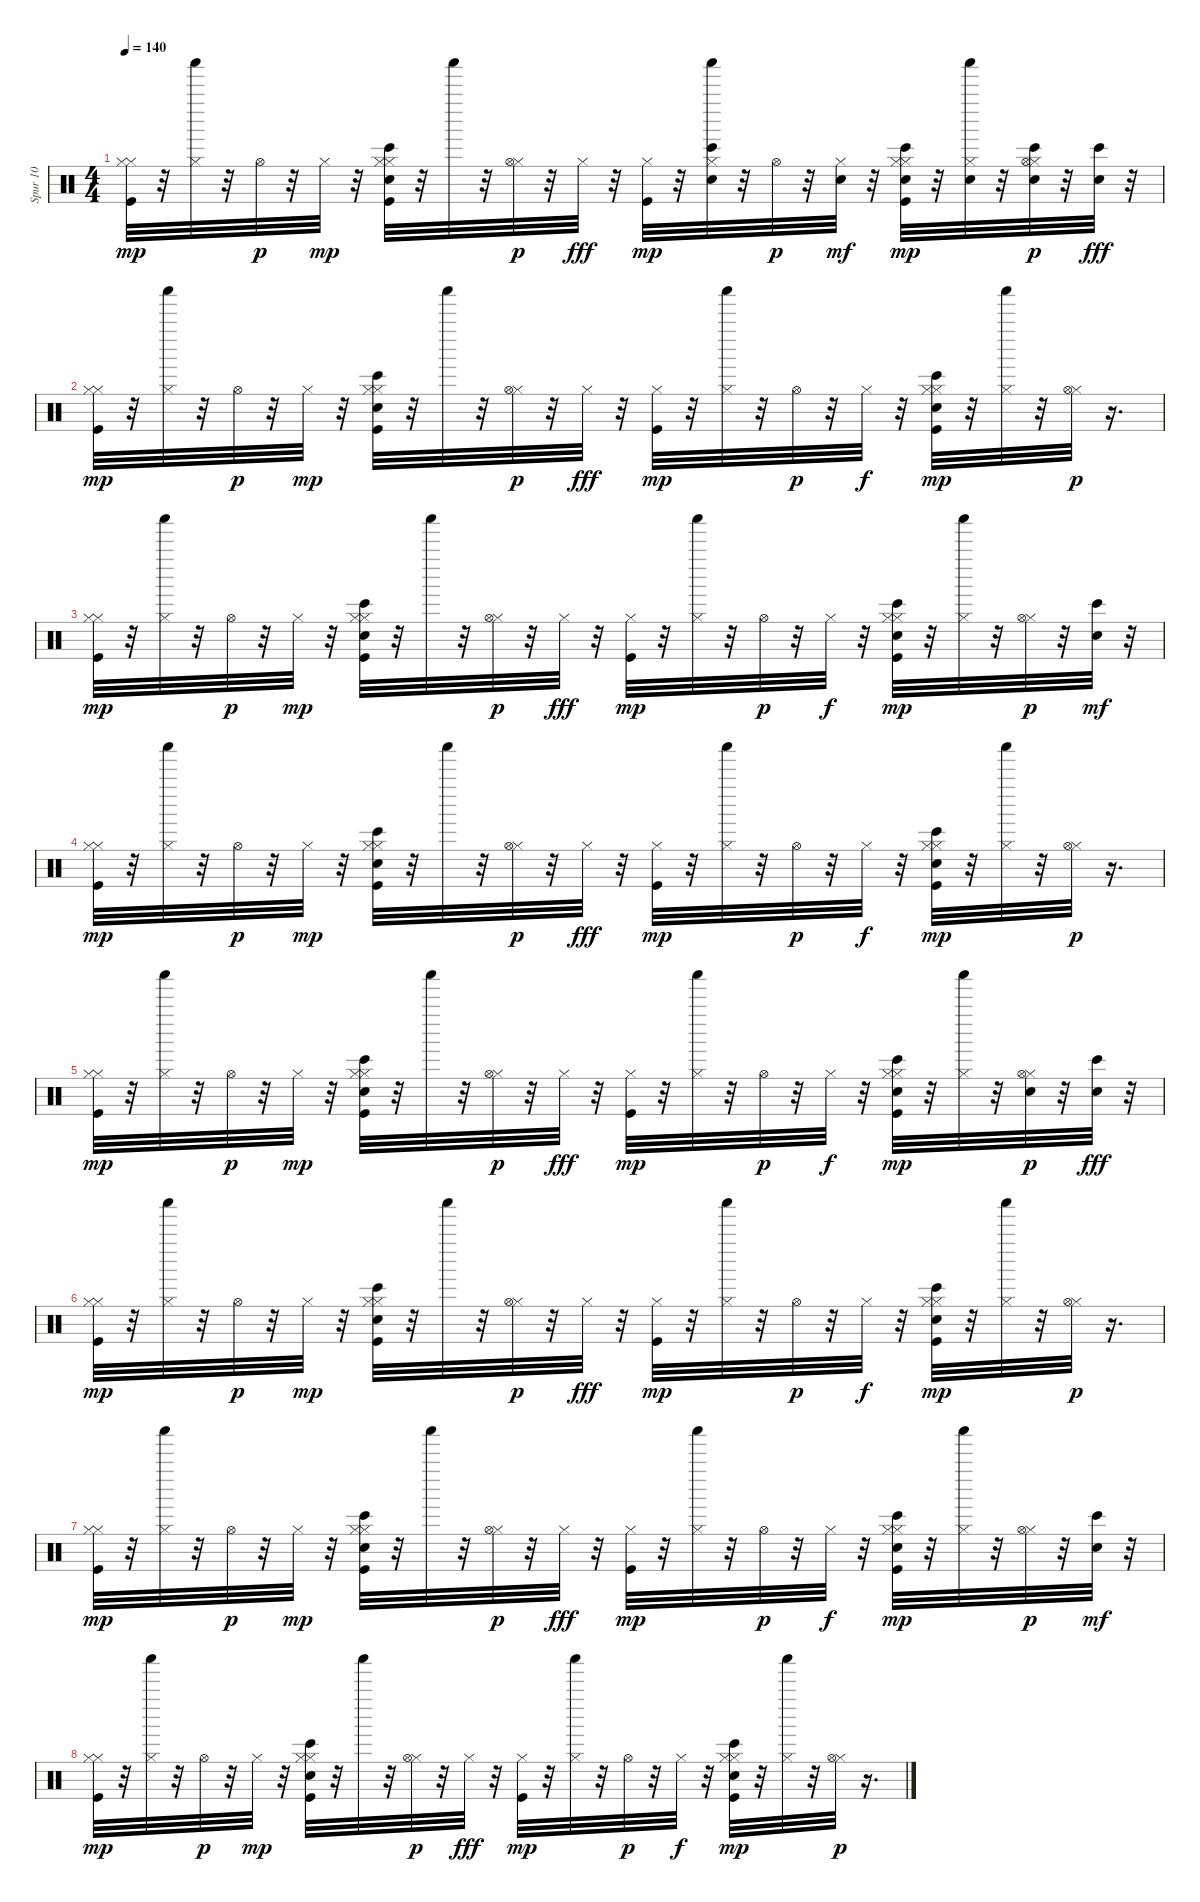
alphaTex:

\track ("Spur 10" "Spur 10") {instrument percussion}
\staff {score}
\articulation defaults
\ts (4 4)
\tempo 140
\clef neutral
\ks c
("Hi-Hat (closed)" "Kick (hit)" "Hi-Hat (closed)").32{dy mp} r.32 ("Hi-Hat (closed)" "Shaker (hit)").32 r.32 "Hi-Hat (open)".32{dy p} r.32 "Hi-Hat (closed)".32{dy mp} r.32 ("Electric Snare (hit)" "Hi-Hat (closed)" "Kick (hit)" "Bongo High (hit)" "Hi-Hat (closed)").32 r.32 "Shaker (hit)".32 r.32 ("Hi-Hat (closed)" "Hi-Hat (open)").32{dy p} r.32 "Hi-Hat (closed)".32{dy fff} r.32 ("Kick (hit)" "Hi-Hat (closed)").32{dy mp} r.32 ("Hi-Hat (closed)" "Shaker (hit)" "Electric Snare (hit)" "Bongo High (hit)").32 r.32 "Hi-Hat (open)".32{dy p} r.32 ("Hi-Hat (closed)" "Snare (hit) 2").32{dy mf} r.32 ("Hi-Hat (closed)" "Kick (hit)" "Bongo High (hit)" "Electric Snare (hit)" "Hi-Hat (closed)").32{dy mp} r.32 ("Hi-Hat (closed)" "Snare (hit) 2" "Shaker (hit)").32 r.32 ("Hi-Hat (closed)" "Electric Snare (hit)" "Bongo High (hit)" "Hi-Hat (open)").32{dy p} r.32 ("Bongo High (hit)" "Electric Snare (hit)").32{dy fff} r.32 |
("Hi-Hat (closed)" "Kick (hit)" "Hi-Hat (closed)").32{dy mp} r.32 ("Hi-Hat (closed)" "Shaker (hit)").32 r.32 "Hi-Hat (open)".32{dy p} r.32 "Hi-Hat (closed)".32{dy mp} r.32 ("Hi-Hat (closed)" "Kick (hit)" "Bongo High (hit)" "Electric Snare (hit)" "Hi-Hat (closed)").32 r.32 "Shaker (hit)".32 r.32 ("Hi-Hat (closed)" "Hi-Hat (open)").32{dy p} r.32 "Hi-Hat (closed)".32{dy fff} r.32 ("Kick (hit)" "Hi-Hat (closed)").32{dy mp} r.32 ("Hi-Hat (closed)" "Shaker (hit)").32 r.32 "Hi-Hat (open)".32{dy p} r.32 "Hi-Hat (closed)".32{dy f} r.32 ("Hi-Hat (closed)" "Kick (hit)" "Bongo High (hit)" "Electric Snare (hit)" "Hi-Hat (closed)").32{dy mp} r.32 ("Hi-Hat (closed)" "Shaker (hit)").32 r.32 ("Hi-Hat (closed)" "Hi-Hat (open)").32{dy p} r.16{d} |
("Hi-Hat (closed)" "Kick (hit)" "Hi-Hat (closed)").32{dy mp} r.32 ("Hi-Hat (closed)" "Shaker (hit)").32 r.32 "Hi-Hat (open)".32{dy p} r.32 "Hi-Hat (closed)".32{dy mp} r.32 ("Hi-Hat (closed)" "Kick (hit)" "Bongo High (hit)" "Electric Snare (hit)" "Hi-Hat (closed)").32 r.32 "Shaker (hit)".32 r.32 ("Hi-Hat (closed)" "Hi-Hat (open)").32{dy p} r.32 "Hi-Hat (closed)".32{dy fff} r.32 ("Kick (hit)" "Hi-Hat (closed)").32{dy mp} r.32 ("Hi-Hat (closed)" "Shaker (hit)").32 r.32 "Hi-Hat (open)".32{dy p} r.32 "Hi-Hat (closed)".32{dy f} r.32 ("Hi-Hat (closed)" "Kick (hit)" "Bongo High (hit)" "Electric Snare (hit)" "Hi-Hat (closed)").32{dy mp} r.32 ("Hi-Hat (closed)" "Shaker (hit)").32 r.32 ("Hi-Hat (closed)" "Hi-Hat (open)").32{dy p} r.32 ("Bongo High (hit)" "Electric Snare (hit)").32{dy mf} r.32 |
("Hi-Hat (closed)" "Kick (hit)" "Hi-Hat (closed)").32{dy mp} r.32 ("Hi-Hat (closed)" "Shaker (hit)").32 r.32 "Hi-Hat (open)".32{dy p} r.32 "Hi-Hat (closed)".32{dy mp} r.32 ("Hi-Hat (closed)" "Kick (hit)" "Bongo High (hit)" "Electric Snare (hit)" "Hi-Hat (closed)").32 r.32 "Shaker (hit)".32 r.32 ("Hi-Hat (closed)" "Hi-Hat (open)").32{dy p} r.32 "Hi-Hat (closed)".32{dy fff} r.32 ("Kick (hit)" "Hi-Hat (closed)").32{dy mp} r.32 ("Hi-Hat (closed)" "Shaker (hit)").32 r.32 "Hi-Hat (open)".32{dy p} r.32 "Hi-Hat (closed)".32{dy f} r.32 ("Hi-Hat (closed)" "Kick (hit)" "Bongo High (hit)" "Electric Snare (hit)" "Hi-Hat (closed)").32{dy mp} r.32 ("Hi-Hat (closed)" "Shaker (hit)").32 r.32 ("Hi-Hat (closed)" "Hi-Hat (open)").32{dy p} r.16{d} |
("Hi-Hat (closed)" "Kick (hit)" "Hi-Hat (closed)").32{dy mp} r.32 ("Hi-Hat (closed)" "Shaker (hit)").32 r.32 "Hi-Hat (open)".32{dy p} r.32 "Hi-Hat (closed)".32{dy mp} r.32 ("Hi-Hat (closed)" "Kick (hit)" "Bongo High (hit)" "Electric Snare (hit)" "Hi-Hat (closed)").32 r.32 "Shaker (hit)".32 r.32 ("Hi-Hat (closed)" "Hi-Hat (open)").32{dy p} r.32 "Hi-Hat (closed)".32{dy fff} r.32 ("Kick (hit)" "Hi-Hat (closed)").32{dy mp} r.32 ("Hi-Hat (closed)" "Shaker (hit)").32 r.32 "Hi-Hat (open)".32{dy p} r.32 "Hi-Hat (closed)".32{dy f} r.32 ("Hi-Hat (closed)" "Kick (hit)" "Bongo High (hit)" "Electric Snare (hit)" "Hi-Hat (closed)").32{dy mp} r.32 ("Hi-Hat (closed)" "Shaker (hit)").32 r.32 ("Electric Snare (hit)" "Hi-Hat (closed)" "Hi-Hat (open)").32{dy p} r.32 ("Bongo High (hit)" "Electric Snare (hit)").32{dy fff} r.32 |
("Hi-Hat (closed)" "Kick (hit)" "Hi-Hat (closed)").32{dy mp} r.32 ("Hi-Hat (closed)" "Shaker (hit)").32 r.32 "Hi-Hat (open)".32{dy p} r.32 "Hi-Hat (closed)".32{dy mp} r.32 ("Hi-Hat (closed)" "Kick (hit)" "Bongo High (hit)" "Electric Snare (hit)" "Hi-Hat (closed)").32 r.32 "Shaker (hit)".32 r.32 ("Hi-Hat (closed)" "Hi-Hat (open)").32{dy p} r.32 "Hi-Hat (closed)".32{dy fff} r.32 ("Kick (hit)" "Hi-Hat (closed)").32{dy mp} r.32 ("Hi-Hat (closed)" "Shaker (hit)").32 r.32 "Hi-Hat (open)".32{dy p} r.32 "Hi-Hat (closed)".32{dy f} r.32 ("Hi-Hat (closed)" "Kick (hit)" "Bongo High (hit)" "Electric Snare (hit)" "Hi-Hat (closed)").32{dy mp} r.32 ("Hi-Hat (closed)" "Shaker (hit)").32 r.32 ("Hi-Hat (closed)" "Hi-Hat (open)").32{dy p} r.16{d} |
("Hi-Hat (closed)" "Kick (hit)" "Hi-Hat (closed)").32{dy mp} r.32 ("Hi-Hat (closed)" "Shaker (hit)").32 r.32 "Hi-Hat (open)".32{dy p} r.32 "Hi-Hat (closed)".32{dy mp} r.32 ("Hi-Hat (closed)" "Kick (hit)" "Bongo High (hit)" "Electric Snare (hit)" "Hi-Hat (closed)").32 r.32 "Shaker (hit)".32 r.32 ("Hi-Hat (closed)" "Hi-Hat (open)").32{dy p} r.32 "Hi-Hat (closed)".32{dy fff} r.32 ("Kick (hit)" "Hi-Hat (closed)").32{dy mp} r.32 ("Hi-Hat (closed)" "Shaker (hit)").32 r.32 "Hi-Hat (open)".32{dy p} r.32 "Hi-Hat (closed)".32{dy f} r.32 ("Hi-Hat (closed)" "Kick (hit)" "Bongo High (hit)" "Electric Snare (hit)" "Hi-Hat (closed)").32{dy mp} r.32 ("Hi-Hat (closed)" "Shaker (hit)").32 r.32 ("Hi-Hat (closed)" "Hi-Hat (open)").32{dy p} r.32 ("Bongo High (hit)" "Electric Snare (hit)").32{dy mf} r.32 |
("Hi-Hat (closed)" "Kick (hit)" "Hi-Hat (closed)").32{dy mp} r.32 ("Hi-Hat (closed)" "Shaker (hit)").32 r.32 "Hi-Hat (open)".32{dy p} r.32 "Hi-Hat (closed)".32{dy mp} r.32 ("Hi-Hat (closed)" "Kick (hit)" "Bongo High (hit)" "Electric Snare (hit)" "Hi-Hat (closed)").32 r.32 "Shaker (hit)".32 r.32 ("Hi-Hat (closed)" "Hi-Hat (open)").32{dy p} r.32 "Hi-Hat (closed)".32{dy fff} r.32 ("Kick (hit)" "Hi-Hat (closed)").32{dy mp} r.32 ("Hi-Hat (closed)" "Shaker (hit)").32 r.32 "Hi-Hat (open)".32{dy p} r.32 "Hi-Hat (closed)".32{dy f} r.32 ("Hi-Hat (closed)" "Kick (hit)" "Bongo High (hit)" "Electric Snare (hit)" "Hi-Hat (closed)").32{dy mp} r.32 ("Hi-Hat (closed)" "Shaker (hit)").32 r.32 ("Hi-Hat (closed)" "Hi-Hat (open)").32{dy p} r.16{d}
